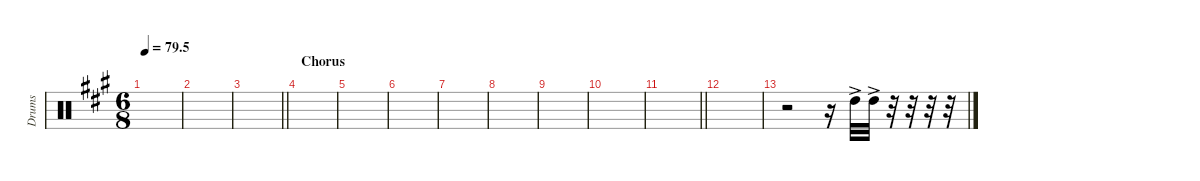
\defaultSystemsLayout 4
\hideDynamics
\bracketExtendMode nobrackets
\otherSystemsTrackNameOrientation horizontal
\track ("Tom 01" "Drums") {instrument percussion}
\staff {score}
\articulation defaults
\ts (6 8)
\tempo
79.5
\accidentals auto
\clef neutral
\ottava regular
\simile none
\scale
0.333333
\ks a
|
\scale
0.333333 |
\scale
0.333333
\barLineRight lightlight
|
\section ("" "Chorus")
\scale
0.333333 |
\scale
0.333333 |
\scale
0.333333 |
\scale
0.333333 |
\scale
0.333333 |
\scale
0.333333 |
\scale
0.333333 |
\scale
0.333333
\barLineRight lightlight
|
\scale
0.333333 |
\scale
0.333333 r.2 r.16 "High Tom (hit)"{ac acc forcenatural}.32 "High Tom (hit)"{ac acc forcenatural}.32 r.32 r.32 r.32 r.32 |
\scale
0.333333 |
\scale
0.333333 |
\scale
0.333333
